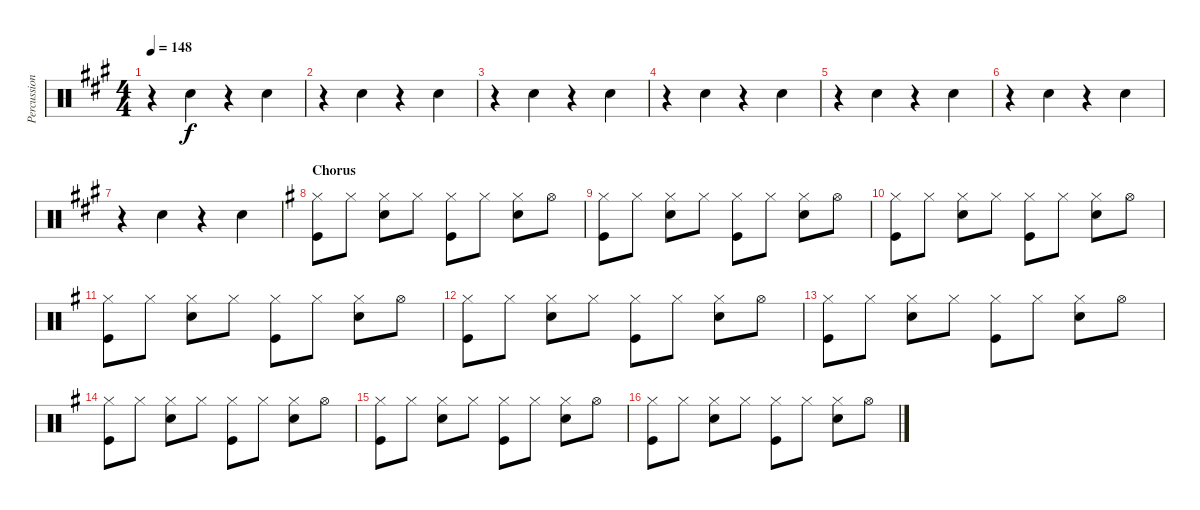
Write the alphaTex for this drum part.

\track ("Percussion" "Percussion") {instrument percussion}
\staff {score}
\articulation defaults
\ts (4 4)
\tempo 148
\clef neutral
\ks a
r.4{dy f} "Hand Clap (hit)".4 r.4 "Hand Clap (hit)".4 |
r.4 "Hand Clap (hit)".4 r.4 "Hand Clap (hit)".4 |
r.4 "Hand Clap (hit)".4 r.4 "Hand Clap (hit)".4 |
r.4 "Hand Clap (hit)".4 r.4 "Hand Clap (hit)".4 |
r.4 "Hand Clap (hit)".4 r.4 "Hand Clap (hit)".4 |
r.4 "Hand Clap (hit)".4 r.4 "Hand Clap (hit)".4 |
r.4 "Hand Clap (hit)".4 r.4 "Hand Clap (hit)".4 |
\section ("" "Chorus")
\ks g
("Hi-Hat (closed)" "Kick (hit)").8 "Hi-Hat (closed)".8 ("Hi-Hat (closed)" "Snare (hit) 2").8 "Hi-Hat (closed)".8 ("Hi-Hat (closed)" "Kick (hit)").8 "Hi-Hat (closed)".8 ("Hi-Hat (closed)" "Snare (hit) 2").8 "Hi-Hat (open)".8 |
("Hi-Hat (closed)" "Kick (hit)").8 "Hi-Hat (closed)".8 ("Hi-Hat (closed)" "Snare (hit) 2").8 "Hi-Hat (closed)".8 ("Hi-Hat (closed)" "Kick (hit)").8 "Hi-Hat (closed)".8 ("Hi-Hat (closed)" "Snare (hit) 2").8 "Hi-Hat (open)".8 |
("Hi-Hat (closed)" "Kick (hit)").8 "Hi-Hat (closed)".8 ("Hi-Hat (closed)" "Snare (hit) 2").8 "Hi-Hat (closed)".8 ("Hi-Hat (closed)" "Kick (hit)").8 "Hi-Hat (closed)".8 ("Hi-Hat (closed)" "Snare (hit) 2").8 "Hi-Hat (open)".8 |
("Hi-Hat (closed)" "Kick (hit)").8 "Hi-Hat (closed)".8 ("Hi-Hat (closed)" "Snare (hit) 2").8 "Hi-Hat (closed)".8 ("Hi-Hat (closed)" "Kick (hit)").8 "Hi-Hat (closed)".8 ("Hi-Hat (closed)" "Snare (hit) 2").8 "Hi-Hat (open)".8 |
("Hi-Hat (closed)" "Kick (hit)").8 "Hi-Hat (closed)".8 ("Hi-Hat (closed)" "Snare (hit) 2").8 "Hi-Hat (closed)".8 ("Hi-Hat (closed)" "Kick (hit)").8 "Hi-Hat (closed)".8 ("Hi-Hat (closed)" "Snare (hit) 2").8 "Hi-Hat (open)".8 |
("Hi-Hat (closed)" "Kick (hit)").8 "Hi-Hat (closed)".8 ("Hi-Hat (closed)" "Snare (hit) 2").8 "Hi-Hat (closed)".8 ("Hi-Hat (closed)" "Kick (hit)").8 "Hi-Hat (closed)".8 ("Hi-Hat (closed)" "Snare (hit) 2").8 "Hi-Hat (open)".8 |
("Hi-Hat (closed)" "Kick (hit)").8 "Hi-Hat (closed)".8 ("Hi-Hat (closed)" "Snare (hit) 2").8 "Hi-Hat (closed)".8 ("Hi-Hat (closed)" "Kick (hit)").8 "Hi-Hat (closed)".8 ("Hi-Hat (closed)" "Snare (hit) 2").8 "Hi-Hat (open)".8 |
("Hi-Hat (closed)" "Kick (hit)").8 "Hi-Hat (closed)".8 ("Hi-Hat (closed)" "Snare (hit) 2").8 "Hi-Hat (closed)".8 ("Hi-Hat (closed)" "Kick (hit)").8 "Hi-Hat (closed)".8 ("Hi-Hat (closed)" "Snare (hit) 2").8 "Hi-Hat (open)".8 |
("Hi-Hat (closed)" "Kick (hit)").8 "Hi-Hat (closed)".8 ("Hi-Hat (closed)" "Snare (hit) 2").8 "Hi-Hat (closed)".8 ("Hi-Hat (closed)" "Kick (hit)").8 "Hi-Hat (closed)".8 ("Hi-Hat (closed)" "Snare (hit) 2").8 "Hi-Hat (open)".8
